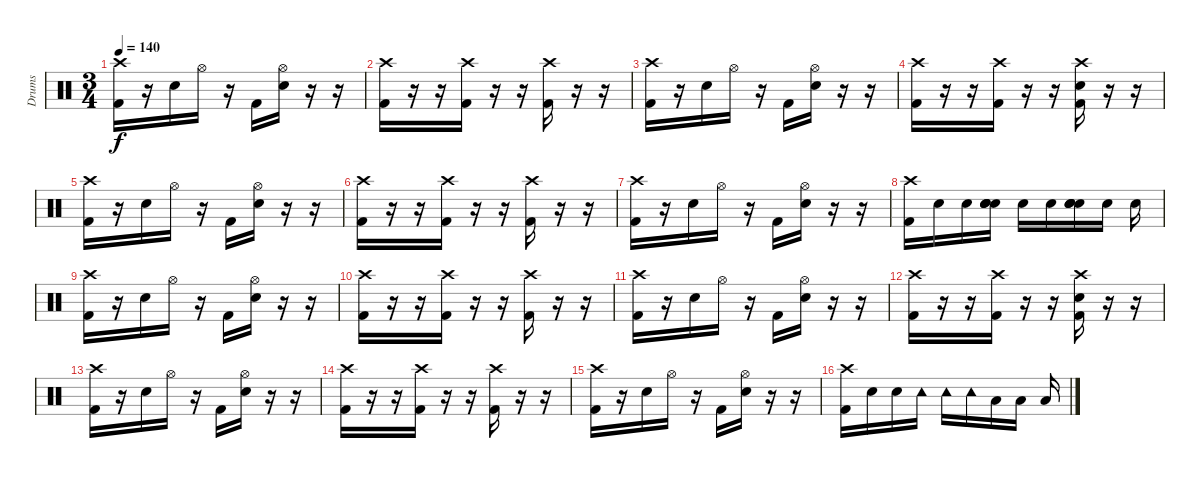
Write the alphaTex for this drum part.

\track ("Drums" "Drums") {instrument percussion}
\staff {score}
\articulation defaults
\ts (3 4)
\tempo 140
\clef neutral
\ks c
("Crash high (hit)" "Kick (hit) 2").16{dy f} r.16 "Snare (hit) 2".16 "Hi-Hat (open)".16 r.16 "Kick (hit) 2".16 ("Hi-Hat (open)" "Snare (hit) 2").16 r.16 r.16 |
("Crash high (hit)" "Kick (hit) 2").16 r.16 r.16 ("Crash high (hit)" "Kick (hit) 2").16 r.16 r.16 ("Crash high (hit)" "Kick (hit) 2").16 r.16 r.16 |
("Crash high (hit)" "Kick (hit) 2").16 r.16 "Snare (hit) 2".16 "Hi-Hat (open)".16 r.16 "Kick (hit) 2".16 ("Hi-Hat (open)" "Snare (hit) 2").16 r.16 r.16 |
("Crash high (hit)" "Kick (hit) 2").16 r.16 r.16 ("Crash high (hit)" "Kick (hit) 2").16 r.16 r.16 ("Crash high (hit)" "Snare (hit) 2" "Kick (hit) 2").16 r.16 r.16 |
("Crash high (hit)" "Kick (hit) 2").16 r.16 "Snare (hit) 2".16 "Hi-Hat (open)".16 r.16 "Kick (hit) 2".16 ("Hi-Hat (open)" "Snare (hit) 2").16 r.16 r.16 |
("Crash high (hit)" "Kick (hit) 2").16 r.16 r.16 ("Crash high (hit)" "Kick (hit) 2").16 r.16 r.16 ("Crash high (hit)" "Kick (hit) 2").16 r.16 r.16 |
("Crash high (hit)" "Kick (hit) 2").16 r.16 "Snare (hit) 2".16 "Hi-Hat (open)".16 r.16 "Kick (hit) 2".16 ("Hi-Hat (open)" "Snare (hit) 2").16 r.16 r.16 |
("Crash high (hit)" "Kick (hit) 2").16 "Snare (hit) 2".16 "Snare (hit) 2".16 ("Snare (hit) 2" "Snare (hit) 2" "Snare (hit) 2" "Snare (hit) 2").16 "Snare (hit) 2".16 "Snare (hit) 2".16 ("Snare (hit) 2" "Snare (hit) 2" "Snare (hit) 2" "Snare (hit) 2").16 "Snare (hit) 2".16 "Snare (hit) 2".16 |
("Crash high (hit)" "Kick (hit) 2").16 r.16 "Snare (hit) 2".16 "Hi-Hat (open)".16 r.16 "Kick (hit) 2".16 ("Hi-Hat (open)" "Snare (hit) 2").16 r.16 r.16 |
("Crash high (hit)" "Kick (hit) 2").16 r.16 r.16 ("Crash high (hit)" "Kick (hit) 2").16 r.16 r.16 ("Crash high (hit)" "Kick (hit) 2").16 r.16 r.16 |
("Crash high (hit)" "Kick (hit) 2").16 r.16 "Snare (hit) 2".16 "Hi-Hat (open)".16 r.16 "Kick (hit) 2".16 ("Hi-Hat (open)" "Snare (hit) 2").16 r.16 r.16 |
("Crash high (hit)" "Kick (hit) 2").16 r.16 r.16 ("Crash high (hit)" "Kick (hit) 2").16 r.16 r.16 ("Crash high (hit)" "Snare (hit) 2" "Kick (hit) 2").16 r.16 r.16 |
("Crash high (hit)" "Kick (hit) 2").16 r.16 "Snare (hit) 2".16 "Hi-Hat (open)".16 r.16 "Kick (hit) 2".16 ("Hi-Hat (open)" "Snare (hit) 2").16 r.16 r.16 |
("Crash high (hit)" "Kick (hit) 2").16 r.16 r.16 ("Crash high (hit)" "Kick (hit) 2").16 r.16 r.16 ("Crash high (hit)" "Kick (hit) 2").16 r.16 r.16 |
("Crash high (hit)" "Kick (hit) 2").16 r.16 "Snare (hit) 2".16 "Hi-Hat (open)".16 r.16 "Kick (hit) 2".16 ("Hi-Hat (open)" "Snare (hit) 2").16 r.16 r.16 |
("Crash high (hit)" "Kick (hit) 2").16 "Snare (hit) 2".16 "Snare (hit) 2".16 "Tambourine (hit)".16 "Tambourine (hit)".16 "Tambourine (hit)".16 "Low Floor Tom (hit)".16 "Low Floor Tom (hit)".16 "Low Floor Tom (hit)".16
